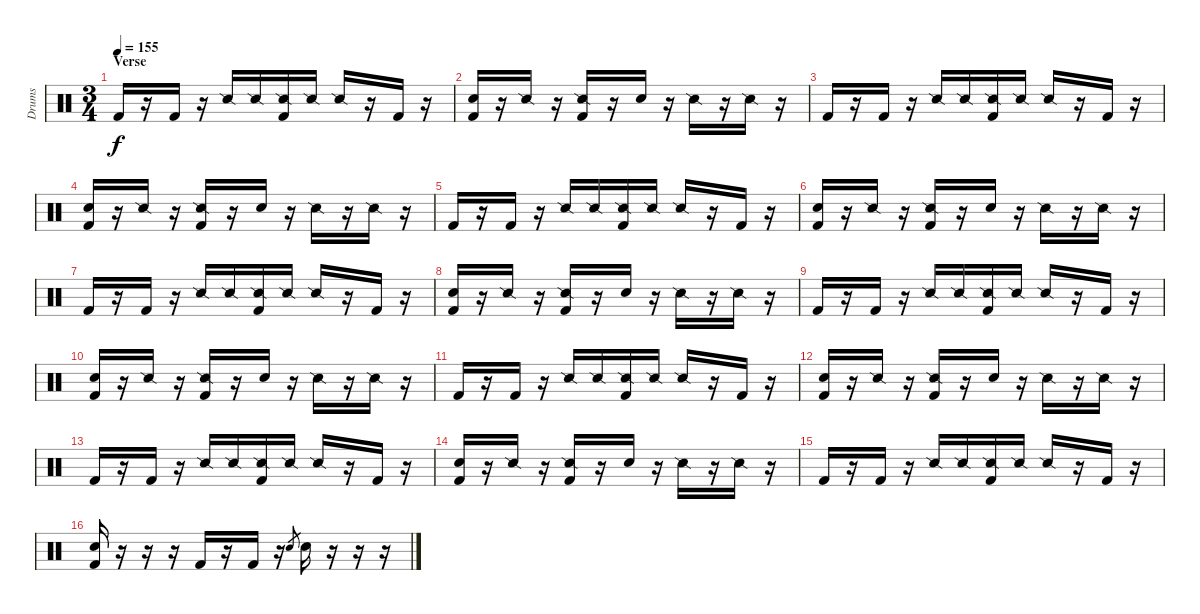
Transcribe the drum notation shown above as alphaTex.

\track ("Drums" "Drums") {instrument percussion}
\staff {score}
\articulation defaults
\ts (3 4)
\section ("" "Verse")
\tempo 155
\clef neutral
\ks c "Kick (hit) 2".16{dy f}
r.16 "Kick (hit) 2".16 r.16 "Snare (side stick) 2".16 "Snare (side stick) 2".16 ("Snare (side stick) 2" "Kick (hit) 2").16 "Snare (side stick) 2".16 "Snare (side stick) 2".16 r.16 "Kick (hit) 2".16 r.16 |
("Snare (hit) 2" "Kick (hit) 2").16 r.16 "Snare (side stick) 2".16 r.16 ("Snare (side stick) 2" "Kick (hit) 2").16 r.16 "Snare (hit) 2".16 r.16 "Snare (side stick) 2".16 r.16 "Snare (side stick) 2".16 r.16 |
"Kick (hit) 2".16 r.16 "Kick (hit) 2".16 r.16 "Snare (side stick) 2".16 "Snare (side stick) 2".16 ("Snare (side stick) 2" "Kick (hit) 2").16 "Snare (side stick) 2".16 "Snare (side stick) 2".16 r.16 "Kick (hit) 2".16 r.16 |
("Snare (hit) 2" "Kick (hit) 2").16 r.16 "Snare (side stick) 2".16 r.16 ("Snare (side stick) 2" "Kick (hit) 2").16 r.16 "Snare (hit) 2".16 r.16 "Snare (side stick) 2".16 r.16 "Snare (side stick) 2".16 r.16 |
"Kick (hit) 2".16 r.16 "Kick (hit) 2".16 r.16 "Snare (side stick) 2".16 "Snare (side stick) 2".16 ("Snare (side stick) 2" "Kick (hit) 2").16 "Snare (side stick) 2".16 "Snare (side stick) 2".16 r.16 "Kick (hit) 2".16 r.16 |
("Snare (hit) 2" "Kick (hit) 2").16 r.16 "Snare (side stick) 2".16 r.16 ("Snare (side stick) 2" "Kick (hit) 2").16 r.16 "Snare (hit) 2".16 r.16 "Snare (side stick) 2".16 r.16 "Snare (side stick) 2".16 r.16 |
"Kick (hit) 2".16 r.16 "Kick (hit) 2".16 r.16 "Snare (side stick) 2".16 "Snare (side stick) 2".16 ("Snare (side stick) 2" "Kick (hit) 2").16 "Snare (side stick) 2".16 "Snare (side stick) 2".16 r.16 "Kick (hit) 2".16 r.16 |
("Snare (hit) 2" "Kick (hit) 2").16 r.16 "Snare (side stick) 2".16 r.16 ("Snare (side stick) 2" "Kick (hit) 2").16 r.16 "Snare (hit) 2".16 r.16 "Snare (side stick) 2".16 r.16 "Snare (side stick) 2".16 r.16 |
"Kick (hit) 2".16 r.16 "Kick (hit) 2".16 r.16 "Snare (side stick) 2".16 "Snare (side stick) 2".16 ("Snare (side stick) 2" "Kick (hit) 2").16 "Snare (side stick) 2".16 "Snare (side stick) 2".16 r.16 "Kick (hit) 2".16 r.16 |
("Snare (hit) 2" "Kick (hit) 2").16 r.16 "Snare (side stick) 2".16 r.16 ("Snare (side stick) 2" "Kick (hit) 2").16 r.16 "Snare (hit) 2".16 r.16 "Snare (side stick) 2".16 r.16 "Snare (side stick) 2".16 r.16 |
"Kick (hit) 2".16 r.16 "Kick (hit) 2".16 r.16 "Snare (side stick) 2".16 "Snare (side stick) 2".16 ("Snare (side stick) 2" "Kick (hit) 2").16 "Snare (side stick) 2".16 "Snare (side stick) 2".16 r.16 "Kick (hit) 2".16 r.16 |
("Snare (hit) 2" "Kick (hit) 2").16 r.16 "Snare (side stick) 2".16 r.16 ("Snare (side stick) 2" "Kick (hit) 2").16 r.16 "Snare (hit) 2".16 r.16 "Snare (side stick) 2".16 r.16 "Snare (side stick) 2".16 r.16 |
"Kick (hit) 2".16 r.16 "Kick (hit) 2".16 r.16 "Snare (side stick) 2".16 "Snare (side stick) 2".16 ("Snare (side stick) 2" "Kick (hit) 2").16 "Snare (side stick) 2".16 "Snare (side stick) 2".16 r.16 "Kick (hit) 2".16 r.16 |
("Snare (hit) 2" "Kick (hit) 2").16 r.16 "Snare (side stick) 2".16 r.16 ("Snare (side stick) 2" "Kick (hit) 2").16 r.16 "Snare (hit) 2".16 r.16 "Snare (side stick) 2".16 r.16 "Snare (side stick) 2".16 r.16 |
"Kick (hit) 2".16 r.16 "Kick (hit) 2".16 r.16 "Snare (side stick) 2".16 "Snare (side stick) 2".16 ("Snare (side stick) 2" "Kick (hit) 2").16 "Snare (side stick) 2".16 "Snare (side stick) 2".16 r.16 "Kick (hit) 2".16 r.16 |
("Snare (hit) 2" "Kick (hit) 2").16 r.16 r.16 r.16 "Kick (hit) 2".16 r.16 "Kick (hit) 2".16 r.16 "Snare (hit) 2".8{gr} "Snare (hit) 2".16 r.16 r.16 r.16
